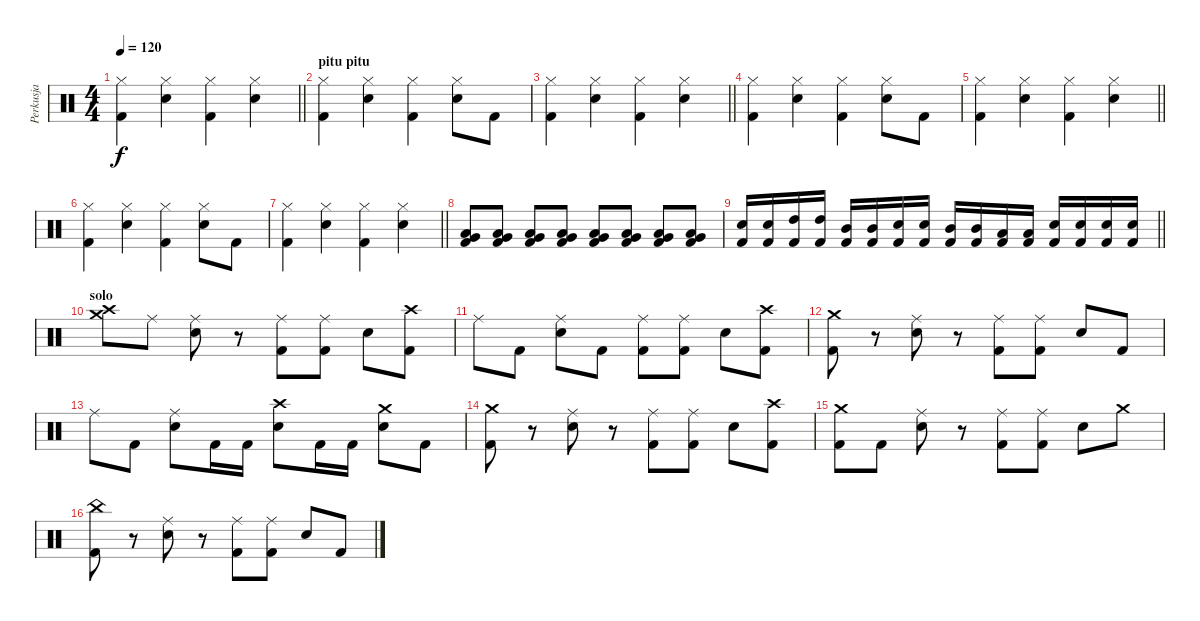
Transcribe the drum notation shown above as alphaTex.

\track ("Perkusja" "Perkusja") {instrument percussion}
\staff {score}
\articulation defaults
\ts (4 4)
\tempo 120
\clef neutral
\barLineRight lightlight
\ks c
("Hi-Hat (closed)" "Kick (hit) 2").4{dy f} ("Hi-Hat (closed)" "Snare (hit) 2").4 ("Hi-Hat (closed)" "Kick (hit) 2").4 ("Hi-Hat (closed)" "Snare (hit) 2").4 |
\section ("" "pitu pitu")
("Hi-Hat (closed)" "Kick (hit) 2").4 ("Hi-Hat (closed)" "Snare (hit) 2").4 ("Hi-Hat (closed)" "Kick (hit) 2").4 ("Hi-Hat (closed)" "Snare (hit) 2").8 "Kick (hit) 2".8 |
\barLineRight lightlight
("Hi-Hat (closed)" "Kick (hit) 2").4 ("Hi-Hat (closed)" "Snare (hit) 2").4 ("Hi-Hat (closed)" "Kick (hit) 2").4 ("Hi-Hat (closed)" "Snare (hit) 2").4 |
("Hi-Hat (closed)" "Kick (hit) 2").4 ("Hi-Hat (closed)" "Snare (hit) 2").4 ("Hi-Hat (closed)" "Kick (hit) 2").4 ("Hi-Hat (closed)" "Snare (hit) 2").8 "Kick (hit) 2".8 |
\barLineRight lightlight
("Hi-Hat (closed)" "Kick (hit) 2").4 ("Hi-Hat (closed)" "Snare (hit) 2").4 ("Hi-Hat (closed)" "Kick (hit) 2").4 ("Hi-Hat (closed)" "Snare (hit) 2").4 |
("Hi-Hat (closed)" "Kick (hit) 2").4 ("Hi-Hat (closed)" "Snare (hit) 2").4 ("Hi-Hat (closed)" "Kick (hit) 2").4 ("Hi-Hat (closed)" "Snare (hit) 2").8 "Kick (hit) 2".8 |
\barLineRight lightlight
("Hi-Hat (closed)" "Kick (hit) 2").4 ("Hi-Hat (closed)" "Snare (hit) 2").4 ("Hi-Hat (closed)" "Kick (hit) 2").4 ("Hi-Hat (closed)" "Snare (hit) 2").4 |
("Very Low Tom (hit)" "Low Tom (hit)" "Kick (hit) 2").8 ("Very Low Tom (hit)" "Low Tom (hit)" "Kick (hit) 2").8 ("Very Low Tom (hit)" "Low Tom (hit)" "Kick (hit) 2").8 ("Very Low Tom (hit)" "Low Tom (hit)" "Kick (hit) 2").8 ("Very Low Tom (hit)" "Low Floor Tom (hit)" "Kick (hit) 2").8 ("Very Low Tom (hit)" "Low Floor Tom (hit)" "Kick (hit) 2").8 ("Very Low Tom (hit)" "Low Floor Tom (hit)" "Kick (hit) 2").8 ("Very Low Tom (hit)" "Low Floor Tom (hit)" "Kick (hit) 2").8 |
\barLineRight lightlight
("Snare (hit) 2" "Kick (hit) 2").16 ("Snare (hit) 2" "Kick (hit) 2").16 ("High Tom (hit)" "Kick (hit) 2").16 ("High Tom (hit)" "Kick (hit) 2").16 ("Mid Tom (hit)" "Kick (hit) 2").16 ("Mid Tom (hit)" "Kick (hit) 2").16 ("Snare (hit) 2" "Kick (hit) 2").16 ("Snare (hit) 2" "Kick (hit) 2").16 ("Mid Tom (hit)" "Kick (hit) 2").16 ("Mid Tom (hit)" "Kick (hit) 2").16 ("Low Tom (hit)" "Kick (hit) 2").16 ("Low Tom (hit)" "Kick (hit) 2").16 ("Snare (hit) 2" "Kick (hit) 2").16 ("Snare (hit) 2" "Kick (hit) 2").16 ("Snare (hit) 2" "Kick (hit) 2").16 ("Snare (hit) 2" "Kick (hit) 2").16 |
\section ("" "solo")
("Crash high (hit)" "Crash medium (hit)").8 "Ride (middle)".8 ("Ride (middle)" "Snare (hit) 2").8 r.8 ("Ride (middle)" "Kick (hit) 2").8 ("Ride (middle)" "Kick (hit) 2").8 "Snare (hit) 2".8 ("Crash high (hit)" "Kick (hit) 2").8 |
"Ride (middle)".8 "Kick (hit) 2".8 ("Ride (middle)" "Snare (hit) 2").8 "Kick (hit) 2".8 ("Ride (middle)" "Kick (hit) 2").8 ("Ride (middle)" "Kick (hit) 2").8 "Snare (hit) 2".8 ("Crash high (hit)" "Kick (hit) 2").8 |
("Crash medium (hit)" "Kick (hit) 2").8 r.8 ("Ride (middle)" "Snare (hit) 2").8 r.8 ("Ride (middle)" "Kick (hit) 2").8 ("Ride (middle)" "Kick (hit) 2").8 "Snare (hit) 2".8 "Kick (hit) 2".8 |
"Ride (middle)".8 "Kick (hit) 2".8 ("Ride (middle)" "Snare (hit) 2").8 "Kick (hit) 2".16 "Kick (hit) 2".16 ("Crash high (hit)" "Snare (hit) 2").8 "Kick (hit) 2".16 "Kick (hit) 2".16 ("Crash medium (hit)" "Snare (hit) 2").8 "Kick (hit) 2".8 |
("Kick (hit) 2" "Crash medium (hit)").8 r.8 ("Ride (middle)" "Snare (hit) 2").8 r.8 ("Ride (middle)" "Kick (hit) 2").8 ("Ride (middle)" "Kick (hit) 2").8 "Snare (hit) 2".8 ("Crash high (hit)" "Kick (hit) 2").8 |
("Crash medium (hit)" "Kick (hit) 2").8 "Kick (hit) 2".8 ("Ride (middle)" "Snare (hit) 2").8 r.8 ("Ride (middle)" "Kick (hit) 2").8 ("Ride (middle)" "Kick (hit) 2").8 "Snare (hit) 2".8 "Crash medium (hit)".8 |
("China (hit)" "Kick (hit) 2").8 r.8 ("Ride (middle)" "Snare (hit) 2").8 r.8 ("Ride (middle)" "Kick (hit) 2").8 ("Ride (middle)" "Kick (hit) 2").8 "Snare (hit) 2".8 "Kick (hit) 2".8
